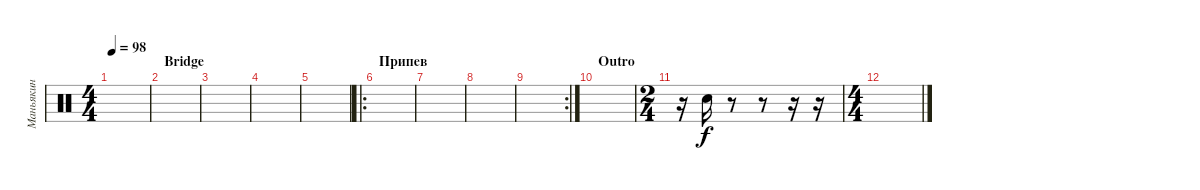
\track ("Маньякин" "Маньякин") {instrument percussion}
\staff {score}
\articulation defaults
\ts (4 4)
\tempo 98
\clef neutral
\ks c
|
\section ("" "Bridge")
|
|
|
|
\ro
\section ("" "Припев")
|
|
|
\rc 2
|
\section ("" "Outro")
|
\ts (2 4)
r.16 "Snare (hit) 2".16 r.8 r.8 r.16 r.16 |
\ts (4 4)
